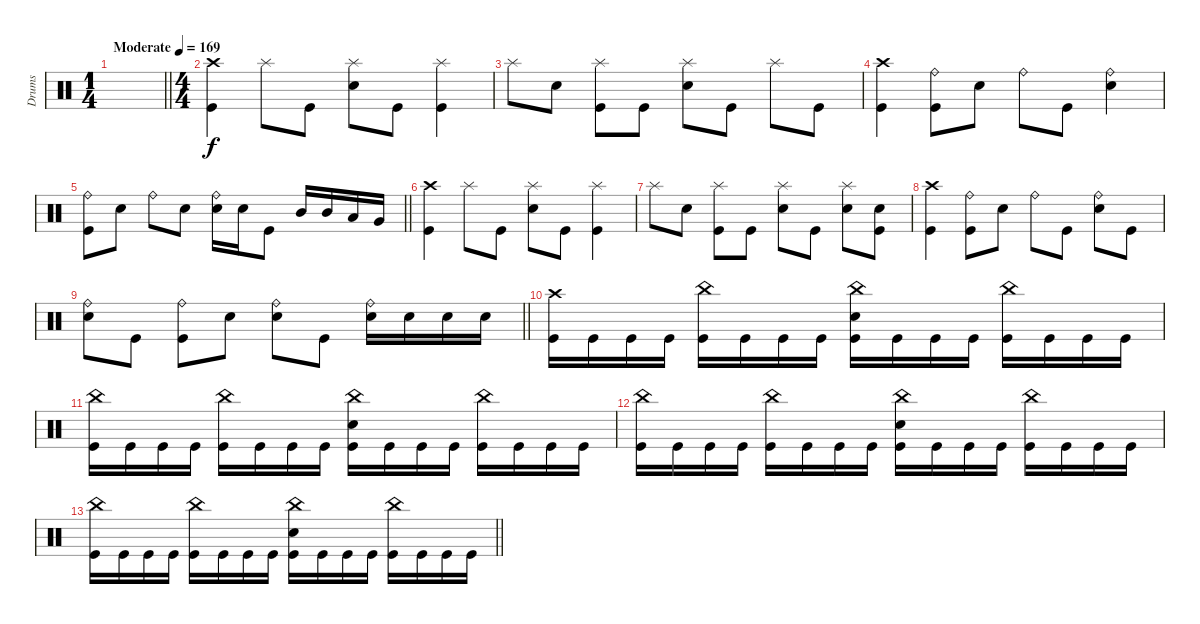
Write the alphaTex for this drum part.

\track ("Drums" "Drums") {instrument percussion}
\staff
\articulation defaults
\ts (1 4)
\tempo (169 "Moderate")
\clef neutral
\barLineRight lightlight
\ks c
|
\ts (4 4)
("Crash high (hit)" "Kick (hit)").4 "Splash (hit)".8 "Kick (hit)".8 ("Splash (hit)" "Electric Snare (hit)").8 "Kick (hit)".8 ("Splash (hit)" "Kick (hit)").4 |
"Splash (hit)".8 "Electric Snare (hit)".8 ("Splash (hit)" "Kick (hit)").8 "Kick (hit)".8 ("Splash (hit)" "Electric Snare (hit)").8 "Kick (hit)".8 "Splash (hit)".8 "Kick (hit)".8 |
("Crash high (hit)" "Kick (hit)").4 ("Ride (bell)" "Kick (hit)").8 "Electric Snare (hit)".8 "Ride (bell)".8 "Kick (hit)".8 ("Ride (bell)" "Electric Snare (hit)").4 |
\barLineRight lightlight
("Ride (bell)" "Kick (hit)").8 "Electric Snare (hit)".8 "Ride (bell)".8 "Electric Snare (hit)".8 ("Ride (bell)" "Electric Snare (hit)").16 "Electric Snare (hit)".16 "Kick (hit)".8 "Mid Tom (hit)".16 "Mid Tom (hit)".16 "Low Tom (hit)".16 "Very Low Tom (hit)".16 |
("Crash high (hit)" "Kick (hit)").4 "Splash (hit)".8 "Kick (hit)".8 ("Splash (hit)" "Electric Snare (hit)").8 "Kick (hit)".8 ("Splash (hit)" "Kick (hit)").4 |
"Splash (hit)".8 "Electric Snare (hit)".8 ("Splash (hit)" "Kick (hit)").8 "Kick (hit)".8 ("Splash (hit)" "Electric Snare (hit)").8 "Kick (hit)".8 ("Splash (hit)" "Electric Snare (hit)").8 ("Electric Snare (hit)" "Kick (hit)").8 |
("Crash high (hit)" "Kick (hit)").4 ("Ride (bell)" "Kick (hit)").8 "Electric Snare (hit)".8 "Ride (bell)".8 "Kick (hit)".8 ("Ride (bell)" "Electric Snare (hit)").8 "Kick (hit)".8 |
\barLineRight lightlight
("Ride (bell)" "Electric Snare (hit)").8 "Kick (hit)".8 ("Ride (bell)" "Kick (hit)").8 "Electric Snare (hit)".8 ("Ride (bell)" "Electric Snare (hit)").8 "Kick (hit)".8 ("Ride (bell)" "Electric Snare (hit)").16 "Electric Snare (hit)".16 "Electric Snare (hit)".16 "Electric Snare (hit)".16 |
("Crash high (hit)" "Kick (hit)").16 "Kick (hit)".16 "Kick (hit)".16 "Kick (hit)".16 ("China (hit)" "Kick (hit)").16 "Kick (hit)".16 "Kick (hit)".16 "Kick (hit)".16 ("China (hit)" "Electric Snare (hit)" "Kick (hit)").16 "Kick (hit)".16 "Kick (hit)".16 "Kick (hit)".16 ("China (hit)" "Kick (hit)").16 "Kick (hit)".16 "Kick (hit)".16 "Kick (hit)".16 |
("China (hit)" "Kick (hit)").16 "Kick (hit)".16 "Kick (hit)".16 "Kick (hit)".16 ("China (hit)" "Kick (hit)").16 "Kick (hit)".16 "Kick (hit)".16 "Kick (hit)".16 ("China (hit)" "Electric Snare (hit)" "Kick (hit)").16 "Kick (hit)".16 "Kick (hit)".16 "Kick (hit)".16 ("China (hit)" "Kick (hit)").16 "Kick (hit)".16 "Kick (hit)".16 "Kick (hit)".16 |
("China (hit)" "Kick (hit)").16 "Kick (hit)".16 "Kick (hit)".16 "Kick (hit)".16 ("China (hit)" "Kick (hit)").16 "Kick (hit)".16 "Kick (hit)".16 "Kick (hit)".16 ("China (hit)" "Electric Snare (hit)" "Kick (hit)").16 "Kick (hit)".16 "Kick (hit)".16 "Kick (hit)".16 ("China (hit)" "Kick (hit)").16 "Kick (hit)".16 "Kick (hit)".16 "Kick (hit)".16 |
\barLineRight lightlight
("China (hit)" "Kick (hit)").16 "Kick (hit)".16 "Kick (hit)".16 "Kick (hit)".16 ("China (hit)" "Kick (hit)").16 "Kick (hit)".16 "Kick (hit)".16 "Kick (hit)".16 ("China (hit)" "Electric Snare (hit)" "Kick (hit)").16 "Kick (hit)".16 "Kick (hit)".16 "Kick (hit)".16 ("China (hit)" "Kick (hit)").16 "Kick (hit)".16 "Kick (hit)".16 "Kick (hit)".16
